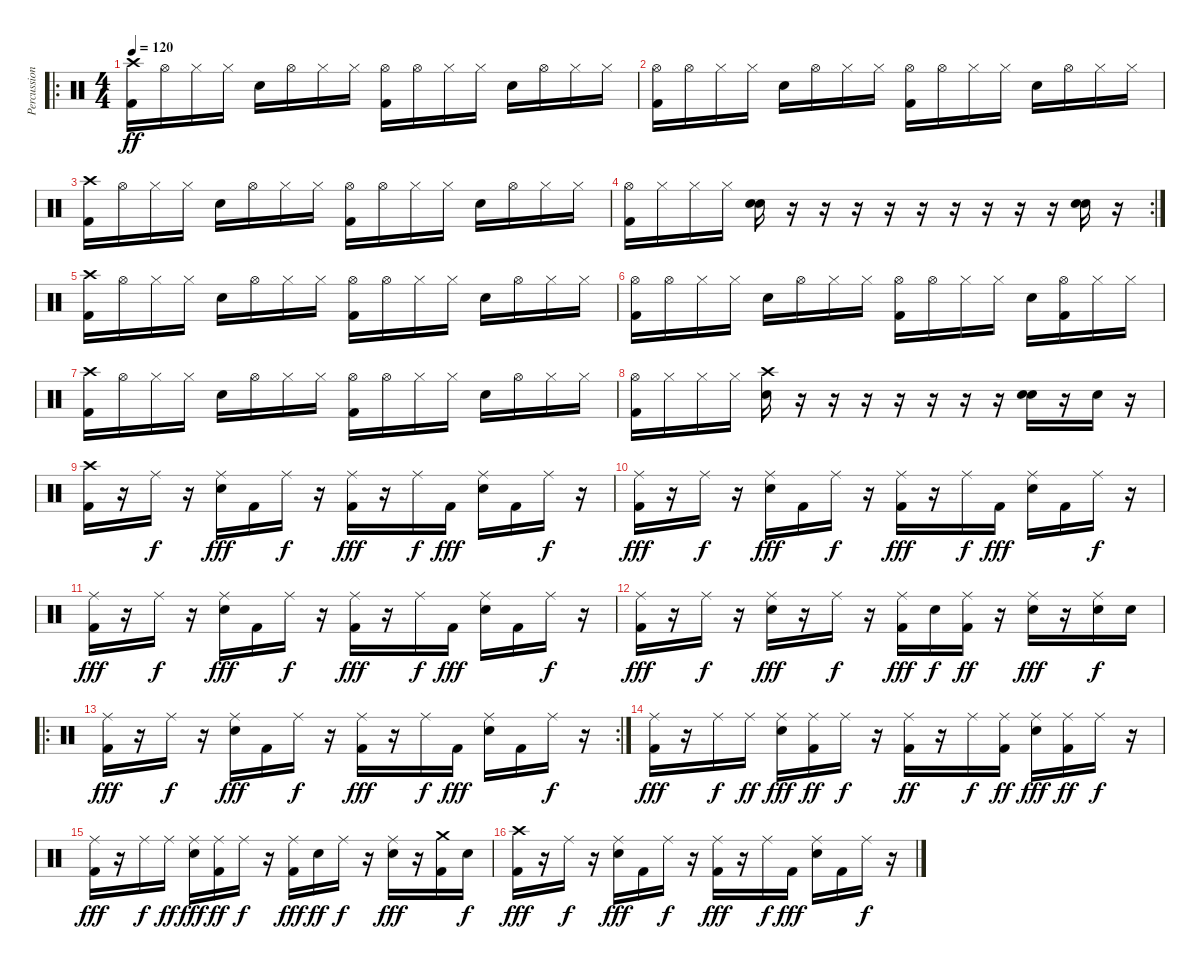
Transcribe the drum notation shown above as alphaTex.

\track ("Percussion" "Percussion") {instrument percussion}
\staff {score}
\articulation defaults
\ro
\ts (4 4)
\tempo 120
\clef neutral
\ks c
("Kick (hit) 2" "Crash high (hit)").16{dy ff} "Hi-Hat (open)".16 "Hi-Hat (closed)".16 "Hi-Hat (closed)".16 "Snare (hit) 2".16 "Hi-Hat (open)".16 "Hi-Hat (closed)".16 "Hi-Hat (closed)".16 ("Kick (hit) 2" "Hi-Hat (open)").16 "Hi-Hat (open)".16 "Hi-Hat (closed)".16 "Hi-Hat (closed)".16 "Snare (hit) 2".16 "Hi-Hat (open)".16 "Hi-Hat (closed)".16 "Hi-Hat (closed)".16 |
("Kick (hit) 2" "Hi-Hat (open)").16 "Hi-Hat (open)".16 "Hi-Hat (closed)".16 "Hi-Hat (closed)".16 "Snare (hit) 2".16 "Hi-Hat (open)".16 "Hi-Hat (closed)".16 "Hi-Hat (closed)".16 ("Kick (hit) 2" "Hi-Hat (open)").16 "Hi-Hat (open)".16 "Hi-Hat (closed)".16 "Hi-Hat (closed)".16 "Snare (hit) 2".16 "Hi-Hat (open)".16 "Hi-Hat (closed)".16 "Hi-Hat (closed)".16 |
("Kick (hit) 2" "Crash high (hit)").16 "Hi-Hat (open)".16 "Hi-Hat (closed)".16 "Hi-Hat (closed)".16 "Snare (hit) 2".16 "Hi-Hat (open)".16 "Hi-Hat (closed)".16 "Hi-Hat (closed)".16 ("Kick (hit) 2" "Hi-Hat (open)").16 "Hi-Hat (open)".16 "Hi-Hat (closed)".16 "Hi-Hat (closed)".16 "Snare (hit) 2".16 "Hi-Hat (open)".16 "Hi-Hat (closed)".16 "Hi-Hat (closed)".16 |
\rc 2
("Kick (hit) 2" "Hi-Hat (open)").16 "Hi-Hat (closed)".16 "Hi-Hat (closed)".16 "Hi-Hat (closed)".16 ("Snare (hit) 2" "Snare (hit) 2").16{bd 480} r.16 r.16 r.16 r.16 r.16 r.16 r.16 r.16 r.16 ("Snare (hit) 2" "Snare (hit) 2").16{bu 480} r.16 |
("Kick (hit) 2" "Crash high (hit)").16 "Hi-Hat (open)".16 "Hi-Hat (closed)".16 "Hi-Hat (closed)".16 "Snare (hit) 2".16 "Hi-Hat (open)".16 "Hi-Hat (closed)".16 "Hi-Hat (closed)".16 ("Kick (hit) 2" "Hi-Hat (open)").16 "Hi-Hat (open)".16 "Hi-Hat (closed)".16 "Hi-Hat (closed)".16 "Snare (hit) 2".16 "Hi-Hat (open)".16 "Hi-Hat (closed)".16 "Hi-Hat (closed)".16 |
("Kick (hit) 2" "Hi-Hat (open)").16 "Hi-Hat (open)".16 "Hi-Hat (closed)".16 "Hi-Hat (closed)".16 "Snare (hit) 2".16 "Hi-Hat (open)".16 "Hi-Hat (closed)".16 "Hi-Hat (closed)".16 ("Kick (hit) 2" "Hi-Hat (open)").16 "Hi-Hat (open)".16 "Hi-Hat (closed)".16 "Hi-Hat (closed)".16 "Snare (hit) 2".16 ("Kick (hit) 2" "Hi-Hat (open)").16 "Hi-Hat (closed)".16 "Hi-Hat (closed)".16 |
("Kick (hit) 2" "Crash high (hit)").16 "Hi-Hat (open)".16 "Hi-Hat (closed)".16 "Hi-Hat (closed)".16 "Snare (hit) 2".16 "Hi-Hat (open)".16 "Hi-Hat (closed)".16 "Hi-Hat (closed)".16 ("Kick (hit) 2" "Hi-Hat (open)").16 "Hi-Hat (open)".16 "Hi-Hat (closed)".16 "Hi-Hat (closed)".16 "Snare (hit) 2".16 "Hi-Hat (open)".16 "Hi-Hat (closed)".16 "Hi-Hat (closed)".16 |
("Kick (hit) 2" "Hi-Hat (open)").16 "Hi-Hat (closed)".16 "Hi-Hat (closed)".16 "Hi-Hat (closed)".16 ("Snare (hit) 2" "Crash high (hit)").16 r.16 r.16 r.16 r.16 r.16 r.16 r.16 ("Snare (hit) 2" "Snare (hit) 2").16{bu 480} r.16 "Snare (hit) 2".16 r.16 |
("Kick (hit) 2" "Crash high (hit)").16 r.16 "Ride (middle)".16{dy f} r.16 ("Snare (hit) 2" "Ride (middle)").16{dy fff} "Kick (hit) 2".16 "Ride (middle)".16{dy f} r.16 ("Kick (hit) 2" "Ride (middle)").16{dy fff} r.16 "Ride (middle)".16{dy f} "Kick (hit) 2".16{dy fff} ("Snare (hit) 2" "Ride (middle)").16 "Kick (hit) 2".16 "Ride (middle)".16{dy f} r.16 |
("Kick (hit) 2" "Ride (middle)").16{dy fff} r.16 "Ride (middle)".16{dy f} r.16 ("Snare (hit) 2" "Ride (middle)").16{dy fff} "Kick (hit) 2".16 "Ride (middle)".16{dy f} r.16 ("Kick (hit) 2" "Ride (middle)").16{dy fff} r.16 "Ride (middle)".16{dy f} "Kick (hit) 2".16{dy fff} ("Snare (hit) 2" "Ride (middle)").16 "Kick (hit) 2".16 "Ride (middle)".16{dy f} r.16 |
("Kick (hit) 2" "Ride (middle)").16{dy fff} r.16 "Ride (middle)".16{dy f} r.16 ("Snare (hit) 2" "Ride (middle)").16{dy fff} "Kick (hit) 2".16 "Ride (middle)".16{dy f} r.16 ("Kick (hit) 2" "Ride (middle)").16{dy fff} r.16 "Ride (middle)".16{dy f} "Kick (hit) 2".16{dy fff} ("Snare (hit) 2" "Ride (middle)").16 "Kick (hit) 2".16 "Ride (middle)".16{dy f} r.16 |
("Kick (hit) 2" "Ride (middle)").16{dy fff} r.16 "Ride (middle)".16{dy f} r.16 ("Snare (hit) 2" "Ride (middle)").16{dy fff} r.16 "Ride (middle)".16{dy f} r.16 ("Kick (hit) 2" "Ride (middle)").16{dy fff} "Snare (hit) 2".16{dy f} ("Kick (hit) 2" "Ride (middle)").16{dy ff} r.16 ("Snare (hit) 2" "Ride (middle)").16{dy fff} r.16 ("Snare (hit) 2" "Ride (middle)").16{dy f} "Snare (hit) 2".16 |
\ro
\rc 2
("Kick (hit) 2" "Ride (middle)").16{dy fff} r.16 "Ride (middle)".16{dy f} r.16 ("Snare (hit) 2" "Ride (middle)").16{dy fff} "Kick (hit) 2".16 "Ride (middle)".16{dy f} r.16 ("Kick (hit) 2" "Ride (middle)").16{dy fff} r.16 "Ride (middle)".16{dy f} "Kick (hit) 2".16{dy fff} ("Snare (hit) 2" "Ride (middle)").16 "Kick (hit) 2".16 "Ride (middle)".16{dy f} r.16 |
("Kick (hit) 2" "Ride (middle)").16{dy fff} r.16 "Ride (middle)".16{dy f} "Ride (middle)".16{dy ff} ("Snare (hit) 2" "Ride (middle)").16{dy fff} ("Kick (hit) 2" "Ride (middle)").16{dy ff} "Ride (middle)".16{dy f} r.16 ("Kick (hit) 2" "Ride (middle)").16{dy ff} r.16 "Ride (middle)".16{dy f} ("Kick (hit) 2" "Ride (middle)").16{dy ff} ("Snare (hit) 2" "Ride (middle)").16{dy fff} ("Kick (hit) 2" "Ride (middle)").16{dy ff} "Ride (middle)".16{dy f} r.16 |
("Kick (hit) 2" "Ride (middle)").16{dy fff} r.16 "Ride (middle)".16{dy f} "Ride (middle)".16{dy ff} ("Snare (hit) 2" "Ride (middle)").16{dy fff} ("Kick (hit) 2" "Ride (middle)").16{dy ff} "Ride (middle)".16{dy f} r.16 ("Kick (hit) 2" "Ride (middle)").16{dy fff} "Snare (hit) 2".16{dy ff} "Ride (middle)".16{dy f} r.16 ("Snare (hit) 2" "Ride (middle)").16{dy fff} r.16 ("Kick (hit) 2" "Crash medium (hit)").16 "Snare (hit) 2".16{dy f} |
("Kick (hit) 2" "Crash high (hit)").16{dy fff} r.16 "Ride (middle)".16{dy f} r.16 ("Snare (hit) 2" "Ride (middle)").16{dy fff} "Kick (hit) 2".16 "Ride (middle)".16{dy f} r.16 ("Kick (hit) 2" "Ride (middle)").16{dy fff} r.16 "Ride (middle)".16{dy f} "Kick (hit) 2".16{dy fff} ("Snare (hit) 2" "Ride (middle)").16 "Kick (hit) 2".16 "Ride (middle)".16{dy f} r.16
